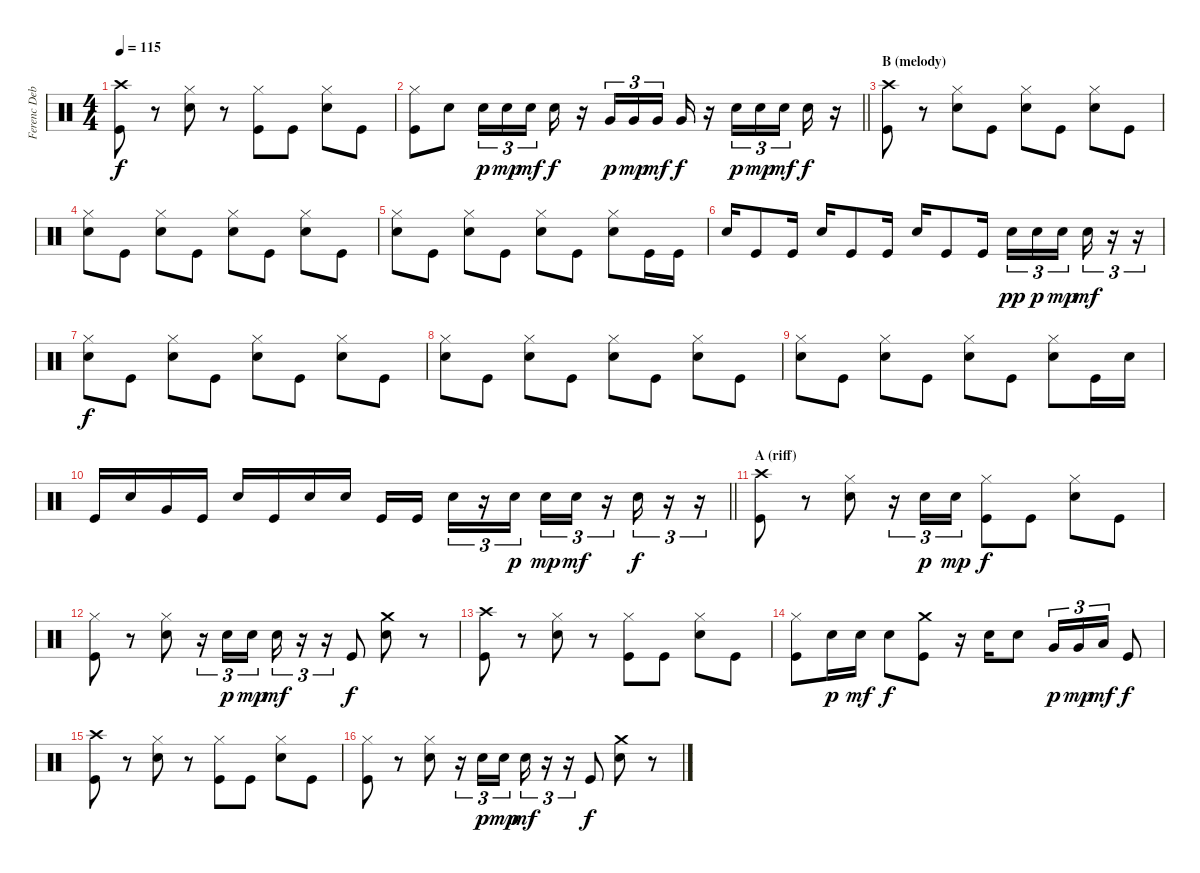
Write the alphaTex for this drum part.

\track ("Ferenc Debreceni \"Ciki\" (Drums)" "Ferenc Deb") {instrument percussion}
\staff {score}
\articulation defaults
\ts (4 4)
\tempo 115
\clef neutral
\ks c
("Crash high (hit)" "Kick (hit)").8{dy f} r.8 ("Hi-Hat (closed)" "Electric Snare (hit)").8 r.8 ("Hi-Hat (closed)" "Kick (hit)").8 "Kick (hit)".8 ("Hi-Hat (closed)" "Electric Snare (hit)").8 "Kick (hit)".8 |
\barLineRight lightlight
("Hi-Hat (closed)" "Kick (hit)").8 "Electric Snare (hit)".8 "Electric Snare (hit)".16{tu (3 2) dy p} "Electric Snare (hit)".16{tu (3 2) dy mp} "Electric Snare (hit)".16{tu (3 2) dy mf beam splitsecondary} "Electric Snare (hit)".16{dy f} r.16 "Very Low Tom (hit)".16{tu (3 2) dy p} "Very Low Tom (hit)".16{tu (3 2) dy mp} "Very Low Tom (hit)".16{tu (3 2) dy mf beam splitsecondary} "Very Low Tom (hit)".16{dy f} r.16 "Electric Snare (hit)".16{tu (3 2) dy p} "Electric Snare (hit)".16{tu (3 2) dy mp} "Electric Snare (hit)".16{tu (3 2) dy mf beam splitsecondary} "Electric Snare (hit)".16{dy f} r.16 |
\section ("" "B (melody)")
("Crash high (hit)" "Kick (hit)").8 r.8 ("Hi-Hat (closed)" "Electric Snare (hit)").8 "Kick (hit)".8 ("Hi-Hat (closed)" "Electric Snare (hit)").8 "Kick (hit)".8 ("Hi-Hat (closed)" "Electric Snare (hit)").8 "Kick (hit)".8 |
("Hi-Hat (closed)" "Electric Snare (hit)").8 "Kick (hit)".8 ("Hi-Hat (closed)" "Electric Snare (hit)").8 "Kick (hit)".8 ("Hi-Hat (closed)" "Electric Snare (hit)").8 "Kick (hit)".8 ("Hi-Hat (closed)" "Electric Snare (hit)").8 "Kick (hit)".8 |
("Hi-Hat (closed)" "Electric Snare (hit)").8 "Kick (hit)".8 ("Hi-Hat (closed)" "Electric Snare (hit)").8 "Kick (hit)".8 ("Hi-Hat (closed)" "Electric Snare (hit)").8 "Kick (hit)".8 ("Hi-Hat (closed)" "Electric Snare (hit)").8 "Kick (hit)".16 "Kick (hit)".16 |
"Electric Snare (hit)".16 "Kick (hit)".8 "Kick (hit)".16 "Electric Snare (hit)".16 "Kick (hit)".8 "Kick (hit)".16 "Electric Snare (hit)".16 "Kick (hit)".8 "Kick (hit)".16 "Electric Snare (hit)".16{tu (3 2) dy pp} "Electric Snare (hit)".16{tu (3 2) dy p} "Electric Snare (hit)".16{tu (3 2) dy mp beam splitsecondary} "Electric Snare (hit)".16{tu (3 2) dy mf} r.16{tu (3 2)} r.16{tu (3 2)} |
("Hi-Hat (closed)" "Electric Snare (hit)").8{dy f} "Kick (hit)".8 ("Hi-Hat (closed)" "Electric Snare (hit)").8 "Kick (hit)".8 ("Hi-Hat (closed)" "Electric Snare (hit)").8 "Kick (hit)".8 ("Hi-Hat (closed)" "Electric Snare (hit)").8 "Kick (hit)".8 |
("Hi-Hat (closed)" "Electric Snare (hit)").8 "Kick (hit)".8 ("Hi-Hat (closed)" "Electric Snare (hit)").8 "Kick (hit)".8 ("Hi-Hat (closed)" "Electric Snare (hit)").8 "Kick (hit)".8 ("Hi-Hat (closed)" "Electric Snare (hit)").8 "Kick (hit)".8 |
("Hi-Hat (closed)" "Electric Snare (hit)").8 "Kick (hit)".8 ("Hi-Hat (closed)" "Electric Snare (hit)").8 "Kick (hit)".8 ("Hi-Hat (closed)" "Electric Snare (hit)").8 "Kick (hit)".8 ("Hi-Hat (closed)" "Electric Snare (hit)").8 "Kick (hit)".16 "Electric Snare (hit)".16 |
\barLineRight lightlight "Kick (hit)".16 "Electric Snare (hit)".16 "Very Low Tom (hit)".16 "Kick (hit)".16 "Electric Snare (hit)".16 "Kick (hit)".16 "Electric Snare (hit)".16 "Electric Snare (hit)".16 "Kick (hit)".16 "Kick (hit)".16{beam splitsecondary} "Electric Snare (hit)".16{tu (3 2)}
r.16{tu (3 2)} "Electric Snare (hit)".16{tu (3 2) dy p} "Electric Snare (hit)".16{tu (3 2) dy mp} "Electric Snare (hit)".16{tu (3 2) dy mf} r.16{tu (3 2)} "Electric Snare (hit)".16{tu (3 2) dy f} r.16{tu (3 2)} r.16{tu (3 2)} |
\section ("" "A (riff)")
("Crash high (hit)" "Kick (hit)").8 r.8 ("Hi-Hat (closed)" "Electric Snare (hit)").8 r.16{tu (3 2)} "Electric Snare (hit)".16{tu (3 2) dy p} "Electric Snare (hit)".16{tu (3 2) dy mp} ("Hi-Hat (closed)" "Kick (hit)").8{dy f} "Kick (hit)".8 ("Hi-Hat (closed)" "Electric Snare (hit)").8 "Kick (hit)".8 |
("Hi-Hat (closed)" "Kick (hit)").8 r.8 ("Hi-Hat (closed)" "Electric Snare (hit)").8 r.16{tu (3 2)} "Electric Snare (hit)".16{tu (3 2) dy p} "Electric Snare (hit)".16{tu (3 2) dy mp} "Electric Snare (hit)".16{tu (3 2) dy mf} r.16{tu (3 2)} r.16{tu (3 2)} "Kick (hit)".8{dy f} ("Crash medium (hit)" "Electric Snare (hit)").8 r.8 |
("Crash high (hit)" "Kick (hit)").8 r.8 ("Hi-Hat (closed)" "Electric Snare (hit)").8 r.8 ("Hi-Hat (closed)" "Kick (hit)").8 "Kick (hit)".8 ("Hi-Hat (closed)" "Electric Snare (hit)").8 "Kick (hit)".8 |
("Hi-Hat (closed)" "Kick (hit)").8 "Electric Snare (hit)".16{dy p} "Electric Snare (hit)".16{dy mf} "Electric Snare (hit)".8{dy f} ("Crash medium (hit)" "Kick (hit)").8 r.16 "Electric Snare (hit)".16 "Electric Snare (hit)".8 "Very Low Tom (hit)".16{tu (3 2) dy p} "Very Low Tom (hit)".16{tu (3 2) dy mp} "Low Floor Tom (hit)".16{tu (3 2) dy mf} "Kick (hit)".8{dy f} |
("Crash high (hit)" "Kick (hit)").8 r.8 ("Hi-Hat (closed)" "Electric Snare (hit)").8 r.8 ("Hi-Hat (closed)" "Kick (hit)").8 "Kick (hit)".8 ("Hi-Hat (closed)" "Electric Snare (hit)").8 "Kick (hit)".8 |
("Hi-Hat (closed)" "Kick (hit)").8 r.8 ("Hi-Hat (closed)" "Electric Snare (hit)").8 r.16{tu (3 2)} "Electric Snare (hit)".16{tu (3 2) dy p} "Electric Snare (hit)".16{tu (3 2) dy mp} "Electric Snare (hit)".16{tu (3 2) dy mf} r.16{tu (3 2)} r.16{tu (3 2)} "Kick (hit)".8{dy f} ("Crash medium (hit)" "Electric Snare (hit)").8 r.8
